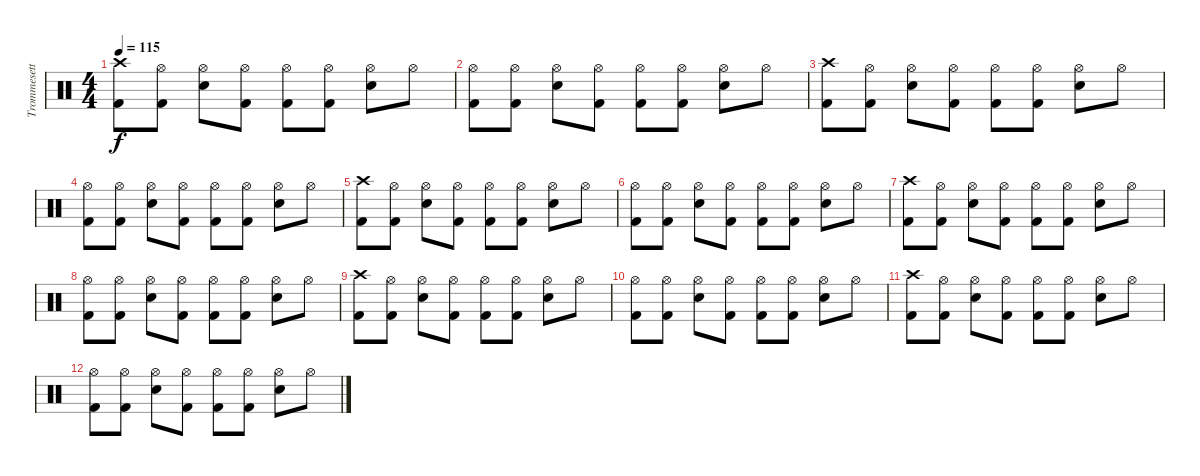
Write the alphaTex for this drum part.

\track ("Trommesett" "Trommesett") {instrument percussion}
\staff {score}
\articulation defaults
\ts (4 4)
\tempo 115
\clef neutral
\ks c
("Crash high (hit)" "Kick (hit) 2").8{dy f} ("Hi-Hat (open)" "Kick (hit) 2").8 ("Hi-Hat (open)" "Electric Snare (hit)").8 ("Hi-Hat (open)" "Kick (hit) 2").8 ("Hi-Hat (open)" "Kick (hit) 2").8 ("Hi-Hat (open)" "Kick (hit) 2").8 ("Hi-Hat (open)" "Electric Snare (hit)").8 "Hi-Hat (open)".8 |
("Hi-Hat (open)" "Kick (hit) 2").8 ("Hi-Hat (open)" "Kick (hit) 2").8 ("Hi-Hat (open)" "Electric Snare (hit)").8 ("Hi-Hat (open)" "Kick (hit) 2").8 ("Hi-Hat (open)" "Kick (hit) 2").8 ("Hi-Hat (open)" "Kick (hit) 2").8 ("Hi-Hat (open)" "Electric Snare (hit)").8 "Hi-Hat (open)".8 |
("Crash high (hit)" "Kick (hit) 2").8 ("Hi-Hat (open)" "Kick (hit) 2").8 ("Hi-Hat (open)" "Electric Snare (hit)").8 ("Hi-Hat (open)" "Kick (hit) 2").8 ("Hi-Hat (open)" "Kick (hit) 2").8 ("Hi-Hat (open)" "Kick (hit) 2").8 ("Hi-Hat (open)" "Electric Snare (hit)").8 "Hi-Hat (open)".8 |
("Hi-Hat (open)" "Kick (hit) 2").8 ("Hi-Hat (open)" "Kick (hit) 2").8 ("Hi-Hat (open)" "Electric Snare (hit)").8 ("Hi-Hat (open)" "Kick (hit) 2").8 ("Hi-Hat (open)" "Kick (hit) 2").8 ("Hi-Hat (open)" "Kick (hit) 2").8 ("Hi-Hat (open)" "Electric Snare (hit)").8 "Hi-Hat (open)".8 |
("Crash high (hit)" "Kick (hit) 2").8{volume 6} ("Hi-Hat (open)" "Kick (hit) 2").8 ("Hi-Hat (open)" "Electric Snare (hit)").8 ("Hi-Hat (open)" "Kick (hit) 2").8 ("Hi-Hat (open)" "Kick (hit) 2").8 ("Hi-Hat (open)" "Kick (hit) 2").8 ("Hi-Hat (open)" "Electric Snare (hit)").8 "Hi-Hat (open)".8 |
("Hi-Hat (open)" "Kick (hit) 2").8 ("Hi-Hat (open)" "Kick (hit) 2").8 ("Hi-Hat (open)" "Electric Snare (hit)").8 ("Hi-Hat (open)" "Kick (hit) 2").8 ("Hi-Hat (open)" "Kick (hit) 2").8 ("Hi-Hat (open)" "Kick (hit) 2").8 ("Hi-Hat (open)" "Electric Snare (hit)").8 "Hi-Hat (open)".8 |
("Crash high (hit)" "Kick (hit) 2").8 ("Hi-Hat (open)" "Kick (hit) 2").8 ("Hi-Hat (open)" "Electric Snare (hit)").8 ("Hi-Hat (open)" "Kick (hit) 2").8 ("Hi-Hat (open)" "Kick (hit) 2").8 ("Hi-Hat (open)" "Kick (hit) 2").8 ("Hi-Hat (open)" "Electric Snare (hit)").8 "Hi-Hat (open)".8 |
("Hi-Hat (open)" "Kick (hit) 2").8 ("Hi-Hat (open)" "Kick (hit) 2").8 ("Hi-Hat (open)" "Electric Snare (hit)").8 ("Hi-Hat (open)" "Kick (hit) 2").8 ("Hi-Hat (open)" "Kick (hit) 2").8 ("Hi-Hat (open)" "Kick (hit) 2").8 ("Hi-Hat (open)" "Electric Snare (hit)").8 "Hi-Hat (open)".8 |
("Crash high (hit)" "Kick (hit) 2").8{volume 0} ("Hi-Hat (open)" "Kick (hit) 2").8 ("Hi-Hat (open)" "Electric Snare (hit)").8 ("Hi-Hat (open)" "Kick (hit) 2").8 ("Hi-Hat (open)" "Kick (hit) 2").8 ("Hi-Hat (open)" "Kick (hit) 2").8 ("Hi-Hat (open)" "Electric Snare (hit)").8 "Hi-Hat (open)".8 |
("Hi-Hat (open)" "Kick (hit) 2").8 ("Hi-Hat (open)" "Kick (hit) 2").8 ("Hi-Hat (open)" "Electric Snare (hit)").8 ("Hi-Hat (open)" "Kick (hit) 2").8 ("Hi-Hat (open)" "Kick (hit) 2").8 ("Hi-Hat (open)" "Kick (hit) 2").8 ("Hi-Hat (open)" "Electric Snare (hit)").8 "Hi-Hat (open)".8 |
("Crash high (hit)" "Kick (hit) 2").8 ("Hi-Hat (open)" "Kick (hit) 2").8 ("Hi-Hat (open)" "Electric Snare (hit)").8 ("Hi-Hat (open)" "Kick (hit) 2").8 ("Hi-Hat (open)" "Kick (hit) 2").8 ("Hi-Hat (open)" "Kick (hit) 2").8 ("Hi-Hat (open)" "Electric Snare (hit)").8 "Hi-Hat (open)".8 |
("Hi-Hat (open)" "Kick (hit) 2").8 ("Hi-Hat (open)" "Kick (hit) 2").8 ("Hi-Hat (open)" "Electric Snare (hit)").8 ("Hi-Hat (open)" "Kick (hit) 2").8 ("Hi-Hat (open)" "Kick (hit) 2").8 ("Hi-Hat (open)" "Kick (hit) 2").8 ("Hi-Hat (open)" "Electric Snare (hit)").8 "Hi-Hat (open)".8
